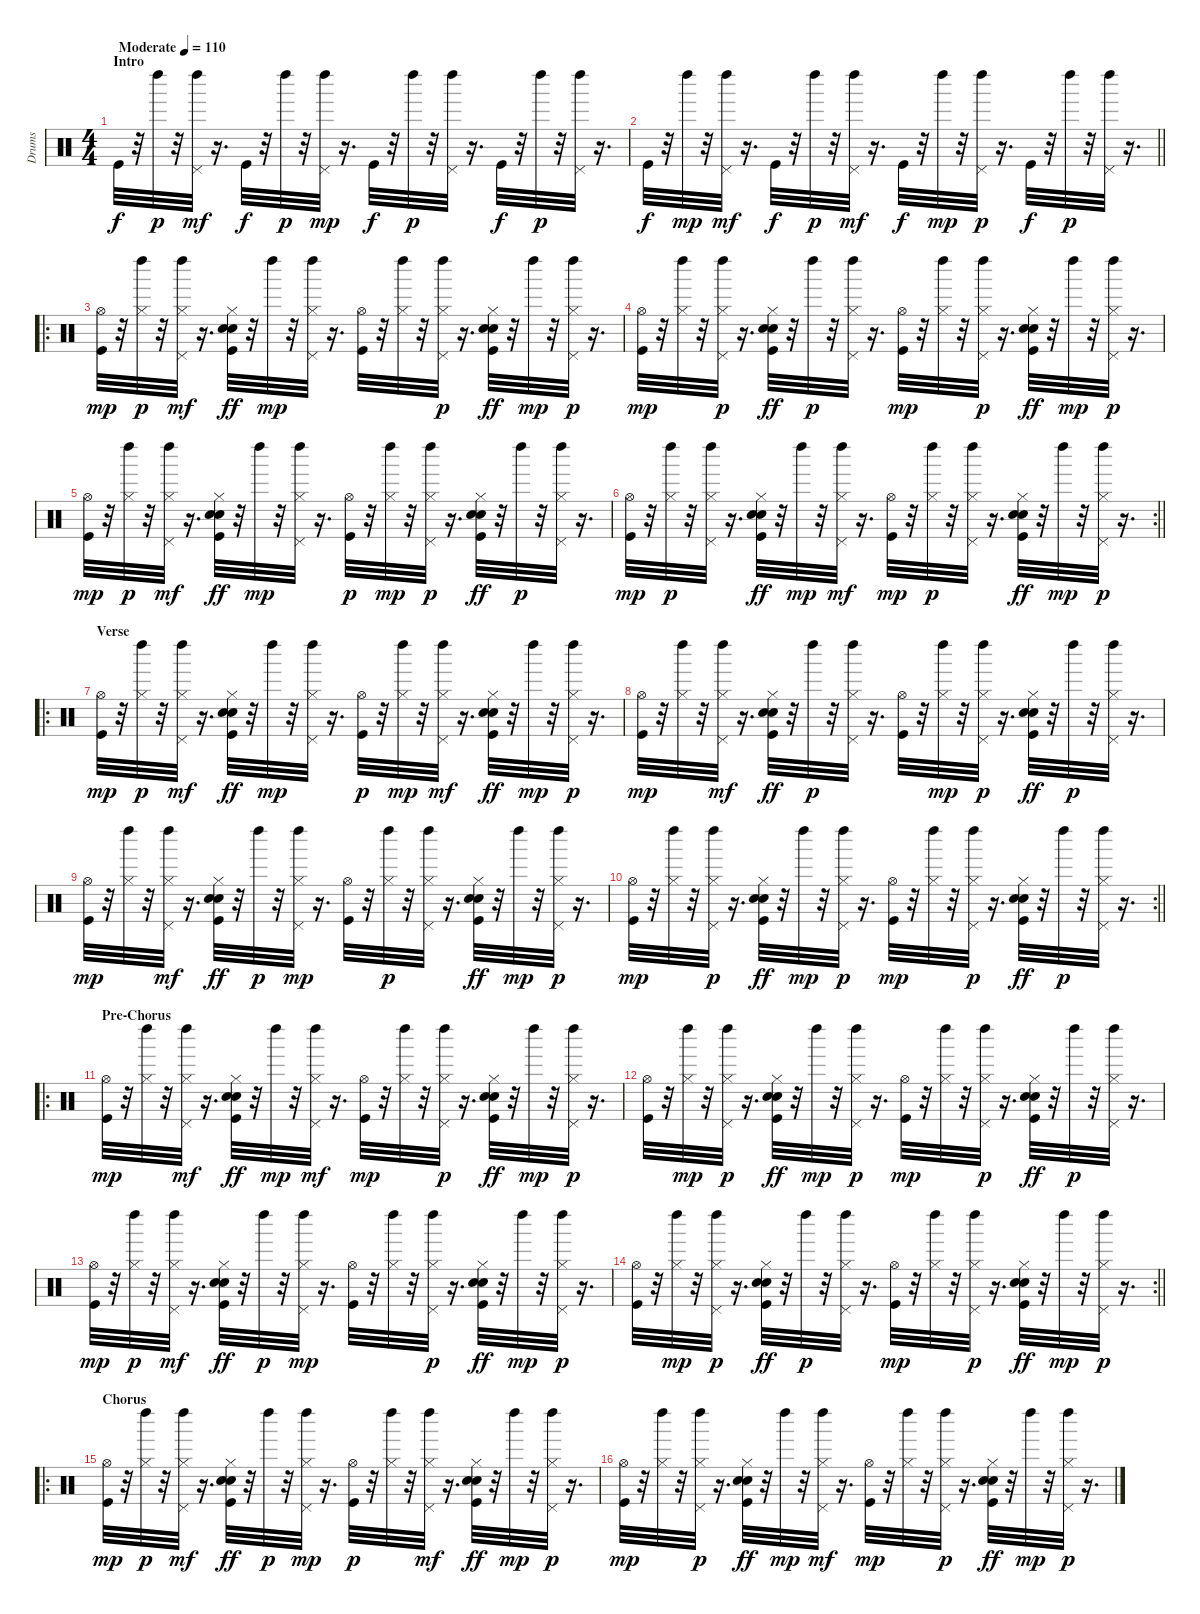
\track ("Drums" "Drums") {instrument percussion}
\staff {score}
\articulation defaults
\ts (4 4)
\section ("" "Intro")
\tempo (110 "Moderate")
\clef neutral
\ks c "Kick (hit)".32{dy f}
r.32 "Left Maraca (hit)".32{dy p} r.32 ("Pedal Hi-Hat (hit)" "Left Maraca (hit)").32{dy mf} r.16{d} "Kick (hit)".32{dy f} r.32 "Left Maraca (hit)".32{dy p} r.32 ("Pedal Hi-Hat (hit)" "Left Maraca (hit)").32{dy mp} r.16{d} "Kick (hit)".32{dy f} r.32 "Left Maraca (hit)".32{dy p} r.32 ("Pedal Hi-Hat (hit)" "Left Maraca (hit)").32 r.16{d} "Kick (hit)".32{dy f} r.32 "Left Maraca (hit)".32{dy p} r.32 ("Pedal Hi-Hat (hit)" "Left Maraca (hit)").32 r.16{d} |
\barLineRight lightlight "Kick (hit)".32{dy f}
r.32 "Left Maraca (hit)".32{dy mp} r.32 ("Pedal Hi-Hat (hit)" "Left Maraca (hit)").32{dy mf} r.16{d} "Kick (hit)".32{dy f} r.32 "Left Maraca (hit)".32{dy p} r.32 ("Pedal Hi-Hat (hit)" "Left Maraca (hit)").32{dy mf} r.16{d} "Kick (hit)".32{dy f} r.32 "Left Maraca (hit)".32{dy mp} r.32 ("Pedal Hi-Hat (hit)" "Left Maraca (hit)").32{dy p} r.16{d} "Kick (hit)".32{dy f} r.32 "Left Maraca (hit)".32{dy p} r.32 ("Pedal Hi-Hat (hit)" "Left Maraca (hit)").32 r.16{d} |
\ro
("Kick (hit)" "Hi-Hat (open)").32{dy mp} r.32 ("Hi-Hat (closed)" "Left Maraca (hit)").32{dy p} r.32 ("Hi-Hat (closed)" "Pedal Hi-Hat (hit)" "Left Maraca (hit)").32{dy mf} r.16{d} ("Kick (hit)" "Snare (hit) 2" "Hand Clap (hit)" "Hi-Hat (closed)").32{dy ff} r.32 "Left Maraca (hit)".32{dy mp} r.32 ("Hi-Hat (closed)" "Pedal Hi-Hat (hit)" "Left Maraca (hit)").32 r.16{d} ("Kick (hit)" "Hi-Hat (open)").32 r.32 ("Hi-Hat (closed)" "Left Maraca (hit)").32 r.32 ("Hi-Hat (closed)" "Pedal Hi-Hat (hit)" "Left Maraca (hit)").32{dy p} r.16{d} ("Kick (hit)" "Snare (hit) 2" "Hand Clap (hit)" "Hi-Hat (closed)").32{dy ff} r.32 "Left Maraca (hit)".32{dy mp} r.32 ("Hi-Hat (closed)" "Pedal Hi-Hat (hit)" "Left Maraca (hit)").32{dy p} r.16{d} |
("Kick (hit)" "Hi-Hat (open)").32{dy mp} r.32 ("Hi-Hat (closed)" "Left Maraca (hit)").32 r.32 ("Hi-Hat (closed)" "Pedal Hi-Hat (hit)" "Left Maraca (hit)").32{dy p} r.16{d} ("Kick (hit)" "Snare (hit) 2" "Hand Clap (hit)" "Hi-Hat (closed)").32{dy ff} r.32 "Left Maraca (hit)".32{dy p} r.32 ("Hi-Hat (closed)" "Pedal Hi-Hat (hit)" "Left Maraca (hit)").32 r.16{d} ("Kick (hit)" "Hi-Hat (open)").32{dy mp} r.32 ("Hi-Hat (closed)" "Left Maraca (hit)").32 r.32 ("Hi-Hat (closed)" "Pedal Hi-Hat (hit)" "Left Maraca (hit)").32{dy p} r.16{d} ("Kick (hit)" "Snare (hit) 2" "Hand Clap (hit)" "Hi-Hat (closed)").32{dy ff} r.32 "Left Maraca (hit)".32{dy mp} r.32 ("Hi-Hat (closed)" "Pedal Hi-Hat (hit)" "Left Maraca (hit)").32{dy p} r.16{d} |
("Kick (hit)" "Hi-Hat (open)").32{dy mp} r.32 ("Hi-Hat (closed)" "Left Maraca (hit)").32{dy p} r.32 ("Hi-Hat (closed)" "Pedal Hi-Hat (hit)" "Left Maraca (hit)").32{dy mf} r.16{d} ("Kick (hit)" "Snare (hit) 2" "Hand Clap (hit)" "Hi-Hat (closed)").32{dy ff} r.32 "Left Maraca (hit)".32{dy mp} r.32 ("Hi-Hat (closed)" "Pedal Hi-Hat (hit)" "Left Maraca (hit)").32 r.16{d} ("Kick (hit)" "Hi-Hat (open)").32{dy p} r.32 ("Hi-Hat (closed)" "Left Maraca (hit)").32{dy mp} r.32 ("Hi-Hat (closed)" "Pedal Hi-Hat (hit)" "Left Maraca (hit)").32{dy p} r.16{d} ("Kick (hit)" "Snare (hit) 2" "Hand Clap (hit)" "Hi-Hat (closed)").32{dy ff} r.32 "Left Maraca (hit)".32{dy p} r.32 ("Hi-Hat (closed)" "Pedal Hi-Hat (hit)" "Left Maraca (hit)").32 r.16{d} |
\rc 2
\barLineRight lightlight
("Kick (hit)" "Hi-Hat (open)").32{dy mp} r.32 ("Hi-Hat (closed)" "Left Maraca (hit)").32{dy p} r.32 ("Hi-Hat (closed)" "Pedal Hi-Hat (hit)" "Left Maraca (hit)").32 r.16{d} ("Kick (hit)" "Snare (hit) 2" "Hand Clap (hit)" "Hi-Hat (closed)").32{dy ff} r.32 "Left Maraca (hit)".32{dy mp} r.32 ("Hi-Hat (closed)" "Pedal Hi-Hat (hit)" "Left Maraca (hit)").32{dy mf} r.16{d} ("Kick (hit)" "Hi-Hat (open)").32{dy mp} r.32 ("Hi-Hat (closed)" "Left Maraca (hit)").32{dy p} r.32 ("Hi-Hat (closed)" "Pedal Hi-Hat (hit)" "Left Maraca (hit)").32 r.16{d} ("Kick (hit)" "Snare (hit) 2" "Hand Clap (hit)" "Hi-Hat (closed)").32{dy ff} r.32 "Left Maraca (hit)".32{dy mp} r.32 ("Hi-Hat (closed)" "Pedal Hi-Hat (hit)" "Left Maraca (hit)").32{dy p} r.16{d} |
\ro
\section ("" "Verse")
("Kick (hit)" "Hi-Hat (open)").32{dy mp} r.32 ("Hi-Hat (closed)" "Left Maraca (hit)").32{dy p} r.32 ("Hi-Hat (closed)" "Pedal Hi-Hat (hit)" "Left Maraca (hit)").32{dy mf} r.16{d} ("Kick (hit)" "Snare (hit) 2" "Hand Clap (hit)" "Hi-Hat (closed)").32{dy ff} r.32 "Left Maraca (hit)".32{dy mp} r.32 ("Hi-Hat (closed)" "Pedal Hi-Hat (hit)" "Left Maraca (hit)").32 r.16{d} ("Kick (hit)" "Hi-Hat (open)").32{dy p} r.32 ("Hi-Hat (closed)" "Left Maraca (hit)").32{dy mp} r.32 ("Hi-Hat (closed)" "Pedal Hi-Hat (hit)" "Left Maraca (hit)").32{dy mf} r.16{d} ("Kick (hit)" "Snare (hit) 2" "Hand Clap (hit)" "Hi-Hat (closed)").32{dy ff} r.32 "Left Maraca (hit)".32{dy mp} r.32 ("Hi-Hat (closed)" "Pedal Hi-Hat (hit)" "Left Maraca (hit)").32{dy p} r.16{d} |
("Kick (hit)" "Hi-Hat (open)").32{dy mp} r.32 ("Hi-Hat (closed)" "Left Maraca (hit)").32 r.32 ("Hi-Hat (closed)" "Pedal Hi-Hat (hit)" "Left Maraca (hit)").32{dy mf} r.16{d} ("Kick (hit)" "Snare (hit) 2" "Hand Clap (hit)" "Hi-Hat (closed)").32{dy ff} r.32 "Left Maraca (hit)".32{dy p} r.32 ("Hi-Hat (closed)" "Pedal Hi-Hat (hit)" "Left Maraca (hit)").32 r.16{d} ("Kick (hit)" "Hi-Hat (open)").32 r.32 ("Hi-Hat (closed)" "Left Maraca (hit)").32{dy mp} r.32 ("Hi-Hat (closed)" "Pedal Hi-Hat (hit)" "Left Maraca (hit)").32{dy p} r.16{d} ("Kick (hit)" "Snare (hit) 2" "Hand Clap (hit)" "Hi-Hat (closed)").32{dy ff} r.32 "Left Maraca (hit)".32{dy p} r.32 ("Hi-Hat (closed)" "Pedal Hi-Hat (hit)" "Left Maraca (hit)").32 r.16{d} |
("Kick (hit)" "Hi-Hat (open)").32{dy mp} r.32 ("Hi-Hat (closed)" "Left Maraca (hit)").32 r.32 ("Hi-Hat (closed)" "Pedal Hi-Hat (hit)" "Left Maraca (hit)").32{dy mf} r.16{d} ("Kick (hit)" "Snare (hit) 2" "Hand Clap (hit)" "Hi-Hat (closed)").32{dy ff} r.32 "Left Maraca (hit)".32{dy p} r.32 ("Hi-Hat (closed)" "Pedal Hi-Hat (hit)" "Left Maraca (hit)").32{dy mp} r.16{d} ("Kick (hit)" "Hi-Hat (open)").32 r.32 ("Hi-Hat (closed)" "Left Maraca (hit)").32{dy p} r.32 ("Hi-Hat (closed)" "Pedal Hi-Hat (hit)" "Left Maraca (hit)").32 r.16{d} ("Kick (hit)" "Snare (hit) 2" "Hand Clap (hit)" "Hi-Hat (closed)").32{dy ff} r.32 "Left Maraca (hit)".32{dy mp} r.32 ("Hi-Hat (closed)" "Pedal Hi-Hat (hit)" "Left Maraca (hit)").32{dy p} r.16{d} |
\rc 2
\barLineRight lightlight
("Kick (hit)" "Hi-Hat (open)").32{dy mp} r.32 ("Hi-Hat (closed)" "Left Maraca (hit)").32 r.32 ("Hi-Hat (closed)" "Pedal Hi-Hat (hit)" "Left Maraca (hit)").32{dy p} r.16{d} ("Kick (hit)" "Snare (hit) 2" "Hand Clap (hit)" "Hi-Hat (closed)").32{dy ff} r.32 "Left Maraca (hit)".32{dy mp} r.32 ("Hi-Hat (closed)" "Pedal Hi-Hat (hit)" "Left Maraca (hit)").32{dy p} r.16{d} ("Kick (hit)" "Hi-Hat (open)").32{dy mp} r.32 ("Hi-Hat (closed)" "Left Maraca (hit)").32 r.32 ("Hi-Hat (closed)" "Pedal Hi-Hat (hit)" "Left Maraca (hit)").32{dy p} r.16{d} ("Kick (hit)" "Snare (hit) 2" "Hand Clap (hit)" "Hi-Hat (closed)").32{dy ff} r.32 "Left Maraca (hit)".32{dy p} r.32 ("Hi-Hat (closed)" "Pedal Hi-Hat (hit)" "Left Maraca (hit)").32 r.16{d} |
\ro
\section ("" "Pre-Chorus")
("Kick (hit)" "Hi-Hat (open)").32{dy mp} r.32 ("Hi-Hat (closed)" "Left Maraca (hit)").32 r.32 ("Hi-Hat (closed)" "Pedal Hi-Hat (hit)" "Left Maraca (hit)").32{dy mf} r.16{d} ("Kick (hit)" "Snare (hit) 2" "Hand Clap (hit)" "Hi-Hat (closed)").32{dy ff} r.32 "Left Maraca (hit)".32{dy mp} r.32 ("Hi-Hat (closed)" "Pedal Hi-Hat (hit)" "Left Maraca (hit)").32{dy mf} r.16{d} ("Kick (hit)" "Hi-Hat (open)").32{dy mp} r.32 ("Hi-Hat (closed)" "Left Maraca (hit)").32 r.32 ("Hi-Hat (closed)" "Pedal Hi-Hat (hit)" "Left Maraca (hit)").32{dy p} r.16{d} ("Kick (hit)" "Snare (hit) 2" "Hand Clap (hit)" "Hi-Hat (closed)").32{dy ff} r.32 "Left Maraca (hit)".32{dy mp} r.32 ("Hi-Hat (closed)" "Pedal Hi-Hat (hit)" "Left Maraca (hit)").32{dy p} r.16{d} |
("Kick (hit)" "Hi-Hat (open)").32 r.32 ("Hi-Hat (closed)" "Left Maraca (hit)").32{dy mp} r.32 ("Hi-Hat (closed)" "Pedal Hi-Hat (hit)" "Left Maraca (hit)").32{dy p} r.16{d} ("Kick (hit)" "Snare (hit) 2" "Hand Clap (hit)" "Hi-Hat (closed)").32{dy ff} r.32 "Left Maraca (hit)".32{dy mp} r.32 ("Hi-Hat (closed)" "Pedal Hi-Hat (hit)" "Left Maraca (hit)").32{dy p} r.16{d} ("Kick (hit)" "Hi-Hat (open)").32{dy mp} r.32 ("Hi-Hat (closed)" "Left Maraca (hit)").32 r.32 ("Hi-Hat (closed)" "Pedal Hi-Hat (hit)" "Left Maraca (hit)").32{dy p} r.16{d} ("Kick (hit)" "Snare (hit) 2" "Hand Clap (hit)" "Hi-Hat (closed)").32{dy ff} r.32 "Left Maraca (hit)".32{dy p} r.32 ("Hi-Hat (closed)" "Pedal Hi-Hat (hit)" "Left Maraca (hit)").32 r.16{d} |
("Kick (hit)" "Hi-Hat (open)").32{dy mp} r.32 ("Hi-Hat (closed)" "Left Maraca (hit)").32{dy p} r.32 ("Hi-Hat (closed)" "Pedal Hi-Hat (hit)" "Left Maraca (hit)").32{dy mf} r.16{d} ("Kick (hit)" "Snare (hit) 2" "Hand Clap (hit)" "Hi-Hat (closed)").32{dy ff} r.32 "Left Maraca (hit)".32{dy p} r.32 ("Hi-Hat (closed)" "Pedal Hi-Hat (hit)" "Left Maraca (hit)").32{dy mp} r.16{d} ("Kick (hit)" "Hi-Hat (open)").32 r.32 ("Hi-Hat (closed)" "Left Maraca (hit)").32 r.32 ("Hi-Hat (closed)" "Pedal Hi-Hat (hit)" "Left Maraca (hit)").32{dy p} r.16{d} ("Kick (hit)" "Snare (hit) 2" "Hand Clap (hit)" "Hi-Hat (closed)").32{dy ff} r.32 "Left Maraca (hit)".32{dy mp} r.32 ("Hi-Hat (closed)" "Pedal Hi-Hat (hit)" "Left Maraca (hit)").32{dy p} r.16{d} |
\rc 2
\barLineRight lightlight
("Kick (hit)" "Hi-Hat (open)").32 r.32 ("Hi-Hat (closed)" "Left Maraca (hit)").32{dy mp} r.32 ("Hi-Hat (closed)" "Pedal Hi-Hat (hit)" "Left Maraca (hit)").32{dy p} r.16{d} ("Kick (hit)" "Snare (hit) 2" "Hand Clap (hit)" "Hi-Hat (closed)").32{dy ff} r.32 "Left Maraca (hit)".32{dy p} r.32 ("Hi-Hat (closed)" "Pedal Hi-Hat (hit)" "Left Maraca (hit)").32 r.16{d} ("Kick (hit)" "Hi-Hat (open)").32{dy mp} r.32 ("Hi-Hat (closed)" "Left Maraca (hit)").32 r.32 ("Hi-Hat (closed)" "Pedal Hi-Hat (hit)" "Left Maraca (hit)").32{dy p} r.16{d} ("Kick (hit)" "Snare (hit) 2" "Hand Clap (hit)" "Hi-Hat (closed)").32{dy ff} r.32 "Left Maraca (hit)".32{dy mp} r.32 ("Hi-Hat (closed)" "Pedal Hi-Hat (hit)" "Left Maraca (hit)").32{dy p} r.16{d} |
\ro
\section ("" "Chorus")
("Kick (hit)" "Hi-Hat (open)").32{dy mp} r.32 ("Hi-Hat (closed)" "Left Maraca (hit)").32{dy p} r.32 ("Hi-Hat (closed)" "Pedal Hi-Hat (hit)" "Left Maraca (hit)").32{dy mf} r.16{d} ("Kick (hit)" "Snare (hit) 2" "Hand Clap (hit)" "Hi-Hat (closed)").32{dy ff} r.32 "Left Maraca (hit)".32{dy p} r.32 ("Hi-Hat (closed)" "Pedal Hi-Hat (hit)" "Left Maraca (hit)").32{dy mp} r.16{d} ("Kick (hit)" "Hi-Hat (open)").32{dy p} r.32 ("Hi-Hat (closed)" "Left Maraca (hit)").32 r.32 ("Hi-Hat (closed)" "Pedal Hi-Hat (hit)" "Left Maraca (hit)").32{dy mf} r.16{d} ("Kick (hit)" "Snare (hit) 2" "Hand Clap (hit)" "Hi-Hat (closed)").32{dy ff} r.32 "Left Maraca (hit)".32{dy mp} r.32 ("Hi-Hat (closed)" "Pedal Hi-Hat (hit)" "Left Maraca (hit)").32{dy p} r.16{d} |
("Kick (hit)" "Hi-Hat (open)").32{dy mp} r.32 ("Hi-Hat (closed)" "Left Maraca (hit)").32 r.32 ("Hi-Hat (closed)" "Pedal Hi-Hat (hit)" "Left Maraca (hit)").32{dy p} r.16{d} ("Kick (hit)" "Snare (hit) 2" "Hand Clap (hit)" "Hi-Hat (closed)").32{dy ff} r.32 "Left Maraca (hit)".32{dy mp} r.32 ("Hi-Hat (closed)" "Pedal Hi-Hat (hit)" "Left Maraca (hit)").32{dy mf} r.16{d} ("Kick (hit)" "Hi-Hat (open)").32{dy mp} r.32 ("Hi-Hat (closed)" "Left Maraca (hit)").32 r.32 ("Hi-Hat (closed)" "Pedal Hi-Hat (hit)" "Left Maraca (hit)").32{dy p} r.16{d} ("Kick (hit)" "Snare (hit) 2" "Hand Clap (hit)" "Hi-Hat (closed)").32{dy ff} r.32 "Left Maraca (hit)".32{dy mp} r.32 ("Hi-Hat (closed)" "Pedal Hi-Hat (hit)" "Left Maraca (hit)").32{dy p} r.16{d}
